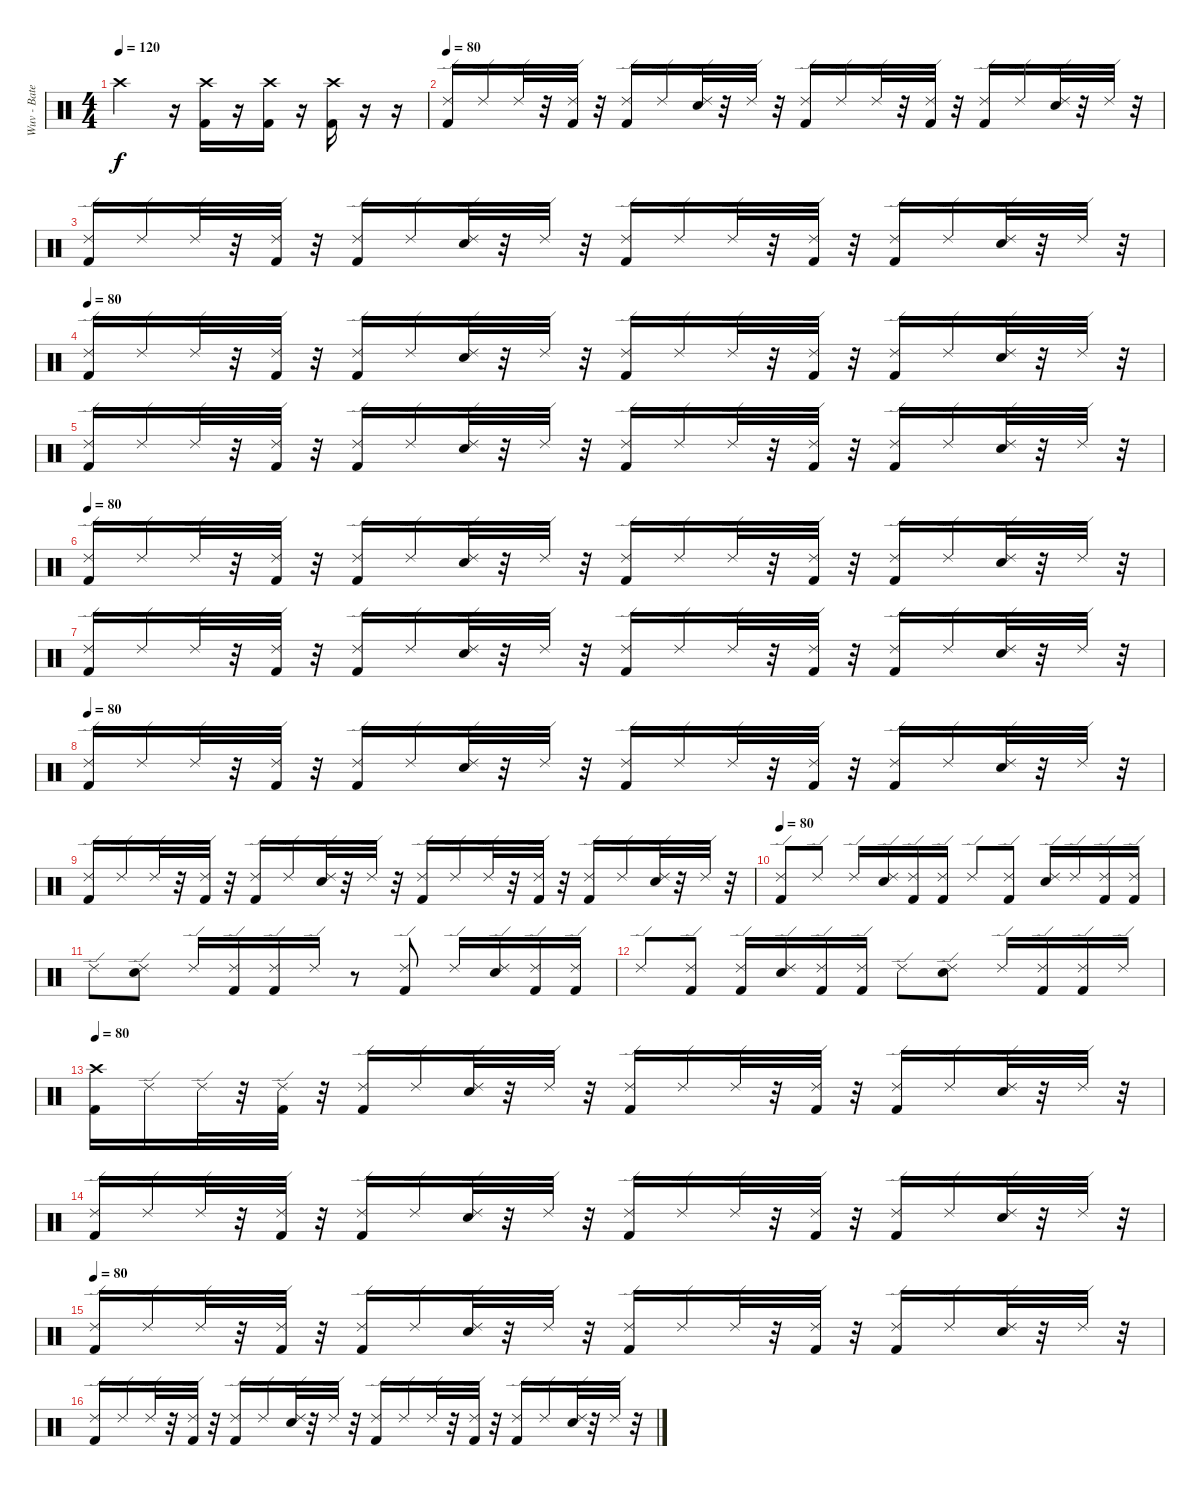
\track ("Wuv - Bateria" "Wuv - Bate") {instrument percussion}
\staff {score}
\articulation defaults
\ts (4 4)
\tempo 120
\clef neutral
\ks c "Crash high (hit)".2{dy f}
r.16 ("Crash high (hit)" "Kick (hit) 2").16 r.16 ("Crash high (hit)" "Kick (hit) 2").16 r.16 ("Crash high (hit)" "Kick (hit) 2").16 r.16 r.16 |
\tempo 80
("Ride (edge) 2" "Kick (hit) 2").16 "Ride (edge) 2".16 "Ride (edge) 2".32 r.32 ("Ride (edge) 2" "Kick (hit) 2").32 r.32 ("Ride (edge) 2" "Kick (hit) 2").16 "Ride (edge) 2".16 ("Ride (edge) 2" "Snare (hit) 2").32 r.32 "Ride (edge) 2".32 r.32 ("Ride (edge) 2" "Kick (hit) 2").16 "Ride (edge) 2".16 "Ride (edge) 2".32 r.32 ("Ride (edge) 2" "Kick (hit) 2").32 r.32 ("Ride (edge) 2" "Kick (hit) 2").16 "Ride (edge) 2".16 ("Ride (edge) 2" "Snare (hit) 2").32 r.32 "Ride (edge) 2".32 r.32 |
("Ride (edge) 2" "Kick (hit) 2").16 "Ride (edge) 2".16 "Ride (edge) 2".32 r.32 ("Ride (edge) 2" "Kick (hit) 2").32 r.32 ("Ride (edge) 2" "Kick (hit) 2").16 "Ride (edge) 2".16 ("Ride (edge) 2" "Snare (hit) 2").32 r.32 "Ride (edge) 2".32 r.32 ("Ride (edge) 2" "Kick (hit) 2").16 "Ride (edge) 2".16 "Ride (edge) 2".32 r.32 ("Ride (edge) 2" "Kick (hit) 2").32 r.32 ("Ride (edge) 2" "Kick (hit) 2").16 "Ride (edge) 2".16 ("Ride (edge) 2" "Snare (hit) 2").32 r.32 "Ride (edge) 2".32 r.32 |
\tempo 80
("Ride (edge) 2" "Kick (hit) 2").16 "Ride (edge) 2".16 "Ride (edge) 2".32 r.32 ("Ride (edge) 2" "Kick (hit) 2").32 r.32 ("Ride (edge) 2" "Kick (hit) 2").16 "Ride (edge) 2".16 ("Ride (edge) 2" "Snare (hit) 2").32 r.32 "Ride (edge) 2".32 r.32 ("Ride (edge) 2" "Kick (hit) 2").16 "Ride (edge) 2".16 "Ride (edge) 2".32 r.32 ("Ride (edge) 2" "Kick (hit) 2").32 r.32 ("Ride (edge) 2" "Kick (hit) 2").16 "Ride (edge) 2".16 ("Ride (edge) 2" "Snare (hit) 2").32 r.32 "Ride (edge) 2".32 r.32 |
("Ride (edge) 2" "Kick (hit) 2").16 "Ride (edge) 2".16 "Ride (edge) 2".32 r.32 ("Ride (edge) 2" "Kick (hit) 2").32 r.32 ("Ride (edge) 2" "Kick (hit) 2").16 "Ride (edge) 2".16 ("Ride (edge) 2" "Snare (hit) 2").32 r.32 "Ride (edge) 2".32 r.32 ("Ride (edge) 2" "Kick (hit) 2").16 "Ride (edge) 2".16 "Ride (edge) 2".32 r.32 ("Ride (edge) 2" "Kick (hit) 2").32 r.32 ("Ride (edge) 2" "Kick (hit) 2").16 "Ride (edge) 2".16 ("Ride (edge) 2" "Snare (hit) 2").32 r.32 "Ride (edge) 2".32 r.32 |
\tempo 80
("Ride (edge) 2" "Kick (hit) 2").16 "Ride (edge) 2".16 "Ride (edge) 2".32 r.32 ("Ride (edge) 2" "Kick (hit) 2").32 r.32 ("Ride (edge) 2" "Kick (hit) 2").16 "Ride (edge) 2".16 ("Ride (edge) 2" "Snare (hit) 2").32 r.32 "Ride (edge) 2".32 r.32 ("Ride (edge) 2" "Kick (hit) 2").16 "Ride (edge) 2".16 "Ride (edge) 2".32 r.32 ("Ride (edge) 2" "Kick (hit) 2").32 r.32 ("Ride (edge) 2" "Kick (hit) 2").16 "Ride (edge) 2".16 ("Ride (edge) 2" "Snare (hit) 2").32 r.32 "Ride (edge) 2".32 r.32 |
("Ride (edge) 2" "Kick (hit) 2").16 "Ride (edge) 2".16 "Ride (edge) 2".32 r.32 ("Ride (edge) 2" "Kick (hit) 2").32 r.32 ("Ride (edge) 2" "Kick (hit) 2").16 "Ride (edge) 2".16 ("Ride (edge) 2" "Snare (hit) 2").32 r.32 "Ride (edge) 2".32 r.32 ("Ride (edge) 2" "Kick (hit) 2").16 "Ride (edge) 2".16 "Ride (edge) 2".32 r.32 ("Ride (edge) 2" "Kick (hit) 2").32 r.32 ("Ride (edge) 2" "Kick (hit) 2").16 "Ride (edge) 2".16 ("Ride (edge) 2" "Snare (hit) 2").32 r.32 "Ride (edge) 2".32 r.32 |
\tempo 80
("Ride (edge) 2" "Kick (hit) 2").16 "Ride (edge) 2".16 "Ride (edge) 2".32 r.32 ("Ride (edge) 2" "Kick (hit) 2").32 r.32 ("Ride (edge) 2" "Kick (hit) 2").16 "Ride (edge) 2".16 ("Ride (edge) 2" "Snare (hit) 2").32 r.32 "Ride (edge) 2".32 r.32 ("Ride (edge) 2" "Kick (hit) 2").16 "Ride (edge) 2".16 "Ride (edge) 2".32 r.32 ("Ride (edge) 2" "Kick (hit) 2").32 r.32 ("Ride (edge) 2" "Kick (hit) 2").16 "Ride (edge) 2".16 ("Ride (edge) 2" "Snare (hit) 2").32 r.32 "Ride (edge) 2".32 r.32 |
("Ride (edge) 2" "Kick (hit) 2").16 "Ride (edge) 2".16 "Ride (edge) 2".32 r.32 ("Ride (edge) 2" "Kick (hit) 2").32 r.32 ("Ride (edge) 2" "Kick (hit) 2").16 "Ride (edge) 2".16 ("Ride (edge) 2" "Snare (hit) 2").32 r.32 "Ride (edge) 2".32 r.32 ("Ride (edge) 2" "Kick (hit) 2").16 "Ride (edge) 2".16 "Ride (edge) 2".32 r.32 ("Ride (edge) 2" "Kick (hit) 2").32 r.32 ("Ride (edge) 2" "Kick (hit) 2").16 "Ride (edge) 2".16 ("Ride (edge) 2" "Snare (hit) 2").32 r.32 "Ride (edge) 2".32 r.32 |
\tempo 80
("Ride (edge) 2" "Kick (hit) 2").8 "Ride (edge) 2".8 "Ride (edge) 2".16 ("Ride (edge) 2" "Snare (hit) 2").16 ("Ride (edge) 2" "Kick (hit) 2").16 ("Ride (edge) 2" "Kick (hit) 2").16 "Ride (edge) 2".8 ("Ride (edge) 2" "Kick (hit) 2").8 ("Ride (edge) 2" "Snare (hit) 2").16 "Ride (edge) 2".16 ("Ride (edge) 2" "Kick (hit) 2").16 ("Ride (edge) 2" "Kick (hit) 2").16 |
"Ride (edge) 2".8 ("Ride (edge) 2" "Snare (hit) 2").8 "Ride (edge) 2".16 ("Ride (edge) 2" "Kick (hit) 2").16 ("Ride (edge) 2" "Kick (hit) 2").16 "Ride (edge) 2".16 r.8 ("Ride (edge) 2" "Kick (hit) 2").8 "Ride (edge) 2".16 ("Ride (edge) 2" "Snare (hit) 2").16 ("Ride (edge) 2" "Kick (hit) 2").16 ("Ride (edge) 2" "Kick (hit) 2").16 |
"Ride (edge) 2".8 ("Ride (edge) 2" "Kick (hit) 2").8 ("Ride (edge) 2" "Kick (hit) 2").16 ("Ride (edge) 2" "Snare (hit) 2").16 ("Ride (edge) 2" "Kick (hit) 2").16 ("Ride (edge) 2" "Kick (hit) 2").16 "Ride (edge) 2".8 ("Ride (edge) 2" "Snare (hit) 2").8 "Ride (edge) 2".16 ("Ride (edge) 2" "Kick (hit) 2").16 ("Ride (edge) 2" "Kick (hit) 2").16 "Ride (edge) 2".16 |
\tempo 80
("Crash high (hit)" "Kick (hit) 2").16 "Ride (edge) 2".16 "Ride (edge) 2".32 r.32 ("Ride (edge) 2" "Kick (hit) 2").32 r.32 ("Ride (edge) 2" "Kick (hit) 2").16 "Ride (edge) 2".16 ("Ride (edge) 2" "Snare (hit) 2").32 r.32 "Ride (edge) 2".32 r.32 ("Ride (edge) 2" "Kick (hit) 2").16 "Ride (edge) 2".16 "Ride (edge) 2".32 r.32 ("Ride (edge) 2" "Kick (hit) 2").32 r.32 ("Ride (edge) 2" "Kick (hit) 2").16 "Ride (edge) 2".16 ("Ride (edge) 2" "Snare (hit) 2").32 r.32 "Ride (edge) 2".32 r.32 |
("Ride (edge) 2" "Kick (hit) 2").16 "Ride (edge) 2".16 "Ride (edge) 2".32 r.32 ("Ride (edge) 2" "Kick (hit) 2").32 r.32 ("Ride (edge) 2" "Kick (hit) 2").16 "Ride (edge) 2".16 ("Ride (edge) 2" "Snare (hit) 2").32 r.32 "Ride (edge) 2".32 r.32 ("Ride (edge) 2" "Kick (hit) 2").16 "Ride (edge) 2".16 "Ride (edge) 2".32 r.32 ("Ride (edge) 2" "Kick (hit) 2").32 r.32 ("Ride (edge) 2" "Kick (hit) 2").16 "Ride (edge) 2".16 ("Ride (edge) 2" "Snare (hit) 2").32 r.32 "Ride (edge) 2".32 r.32 |
\tempo 80
("Ride (edge) 2" "Kick (hit) 2").16 "Ride (edge) 2".16 "Ride (edge) 2".32 r.32 ("Ride (edge) 2" "Kick (hit) 2").32 r.32 ("Ride (edge) 2" "Kick (hit) 2").16 "Ride (edge) 2".16 ("Ride (edge) 2" "Snare (hit) 2").32 r.32 "Ride (edge) 2".32 r.32 ("Ride (edge) 2" "Kick (hit) 2").16 "Ride (edge) 2".16 "Ride (edge) 2".32 r.32 ("Ride (edge) 2" "Kick (hit) 2").32 r.32 ("Ride (edge) 2" "Kick (hit) 2").16 "Ride (edge) 2".16 ("Ride (edge) 2" "Snare (hit) 2").32 r.32 "Ride (edge) 2".32 r.32 |
("Ride (edge) 2" "Kick (hit) 2").16 "Ride (edge) 2".16 "Ride (edge) 2".32 r.32 ("Ride (edge) 2" "Kick (hit) 2").32 r.32 ("Ride (edge) 2" "Kick (hit) 2").16 "Ride (edge) 2".16 ("Ride (edge) 2" "Snare (hit) 2").32 r.32 "Ride (edge) 2".32 r.32 ("Ride (edge) 2" "Kick (hit) 2").16 "Ride (edge) 2".16 "Ride (edge) 2".32 r.32 ("Ride (edge) 2" "Kick (hit) 2").32 r.32 ("Ride (edge) 2" "Kick (hit) 2").16 "Ride (edge) 2".16 ("Ride (edge) 2" "Snare (hit) 2").32 r.32 "Ride (edge) 2".32 r.32
